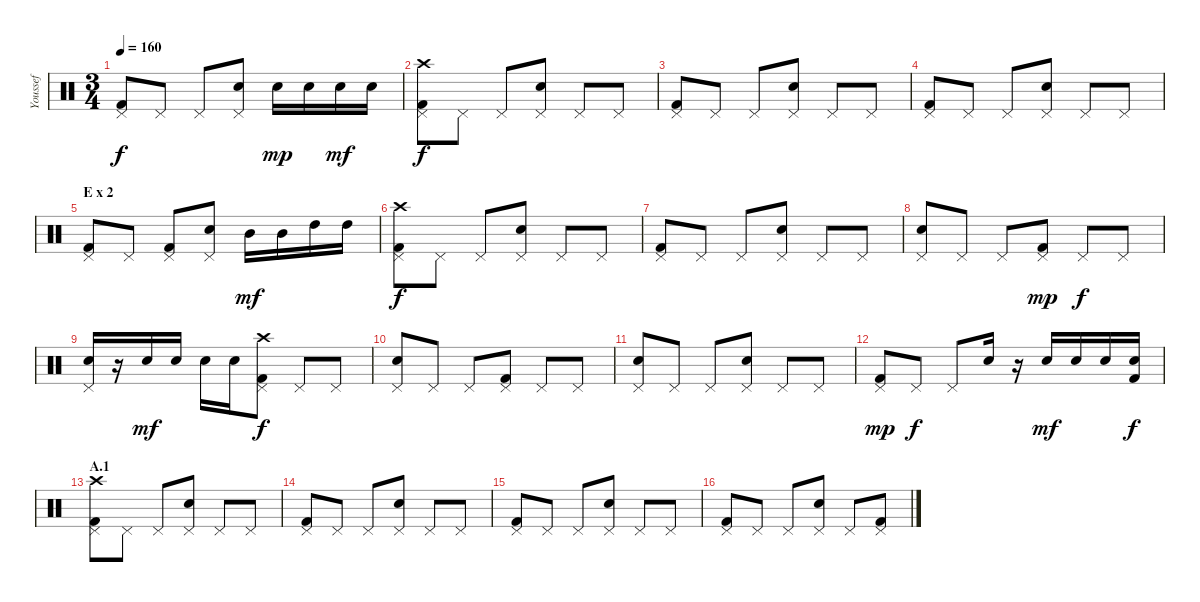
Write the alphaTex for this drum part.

\track ("Youssef" "Youssef") {instrument percussion}
\staff {score}
\articulation defaults
\ts (3 4)
\tempo 160
\clef neutral
\ks c
("Kick (hit) 2" "Pedal Hi-Hat (hit)").8{dy f} "Pedal Hi-Hat (hit)".8 "Pedal Hi-Hat (hit)".8 ("Electric Snare (hit)" "Pedal Hi-Hat (hit)").8 "Electric Snare (hit)".16{dy mp} "Electric Snare (hit)".16 "Electric Snare (hit)".16{dy mf} "Electric Snare (hit)".16 |
("Kick (hit) 2" "Crash high (hit)" "Pedal Hi-Hat (hit)").8{dy f} "Pedal Hi-Hat (hit)".8 "Pedal Hi-Hat (hit)".8 ("Electric Snare (hit)" "Pedal Hi-Hat (hit)").8 "Pedal Hi-Hat (hit)".8 "Pedal Hi-Hat (hit)".8 |
("Kick (hit) 2" "Pedal Hi-Hat (hit)").8 "Pedal Hi-Hat (hit)".8 "Pedal Hi-Hat (hit)".8 ("Electric Snare (hit)" "Pedal Hi-Hat (hit)").8 "Pedal Hi-Hat (hit)".8 "Pedal Hi-Hat (hit)".8 |
("Kick (hit) 2" "Pedal Hi-Hat (hit)").8 "Pedal Hi-Hat (hit)".8 "Pedal Hi-Hat (hit)".8 ("Electric Snare (hit)" "Pedal Hi-Hat (hit)").8 "Pedal Hi-Hat (hit)".8 "Pedal Hi-Hat (hit)".8 |
\section ("" "E x 2")
("Kick (hit) 2" "Pedal Hi-Hat (hit)").8 "Pedal Hi-Hat (hit)".8 ("Kick (hit) 2" "Pedal Hi-Hat (hit)").8 ("Electric Snare (hit)" "Pedal Hi-Hat (hit)").8 "Mid Tom (hit)".16{dy mf} "Mid Tom (hit)".16 "High Tom (hit)".16 "High Tom (hit)".16 |
("Kick (hit) 2" "Crash high (hit)" "Pedal Hi-Hat (hit)").8{dy f} "Pedal Hi-Hat (hit)".8 "Pedal Hi-Hat (hit)".8 ("Electric Snare (hit)" "Pedal Hi-Hat (hit)").8 "Pedal Hi-Hat (hit)".8 "Pedal Hi-Hat (hit)".8 |
("Kick (hit) 2" "Pedal Hi-Hat (hit)").8 "Pedal Hi-Hat (hit)".8 "Pedal Hi-Hat (hit)".8 ("Electric Snare (hit)" "Pedal Hi-Hat (hit)").8 "Pedal Hi-Hat (hit)".8 "Pedal Hi-Hat (hit)".8 |
("Electric Snare (hit)" "Pedal Hi-Hat (hit)").8 "Pedal Hi-Hat (hit)".8 "Pedal Hi-Hat (hit)".8 ("Kick (hit) 2" "Pedal Hi-Hat (hit)").8{dy mp} "Pedal Hi-Hat (hit)".8{dy f} "Pedal Hi-Hat (hit)".8 |
("Electric Snare (hit)" "Pedal Hi-Hat (hit)").16 r.16 "Electric Snare (hit)".16{dy mf} "Electric Snare (hit)".16 "Electric Snare (hit)".16 "Electric Snare (hit)".16 ("Kick (hit) 2" "Crash high (hit)" "Pedal Hi-Hat (hit)").8{dy f} "Pedal Hi-Hat (hit)".8 "Pedal Hi-Hat (hit)".8 |
("Electric Snare (hit)" "Pedal Hi-Hat (hit)").8 "Pedal Hi-Hat (hit)".8 "Pedal Hi-Hat (hit)".8 ("Kick (hit) 2" "Pedal Hi-Hat (hit)").8 "Pedal Hi-Hat (hit)".8 "Pedal Hi-Hat (hit)".8 |
("Electric Snare (hit)" "Pedal Hi-Hat (hit)").8 "Pedal Hi-Hat (hit)".8 "Pedal Hi-Hat (hit)".8 ("Electric Snare (hit)" "Pedal Hi-Hat (hit)").8 "Pedal Hi-Hat (hit)".8 "Pedal Hi-Hat (hit)".8 |
("Kick (hit) 2" "Pedal Hi-Hat (hit)").8{dy mp} "Pedal Hi-Hat (hit)".8{dy f} "Pedal Hi-Hat (hit)".8 "Electric Snare (hit)".16 r.16 "Electric Snare (hit)".16{dy mf} "Electric Snare (hit)".16 "Electric Snare (hit)".16 ("Kick (hit) 2" "Electric Snare (hit)").16{dy f} |
\section ("" "A.1")
("Kick (hit) 2" "Crash high (hit)" "Pedal Hi-Hat (hit)").8 "Pedal Hi-Hat (hit)".8 "Pedal Hi-Hat (hit)".8 ("Electric Snare (hit)" "Pedal Hi-Hat (hit)").8 "Pedal Hi-Hat (hit)".8 "Pedal Hi-Hat (hit)".8 |
("Kick (hit) 2" "Pedal Hi-Hat (hit)").8 "Pedal Hi-Hat (hit)".8 "Pedal Hi-Hat (hit)".8 ("Electric Snare (hit)" "Pedal Hi-Hat (hit)").8 "Pedal Hi-Hat (hit)".8 "Pedal Hi-Hat (hit)".8 |
("Kick (hit) 2" "Pedal Hi-Hat (hit)").8 "Pedal Hi-Hat (hit)".8 "Pedal Hi-Hat (hit)".8 ("Electric Snare (hit)" "Pedal Hi-Hat (hit)").8 "Pedal Hi-Hat (hit)".8 "Pedal Hi-Hat (hit)".8 |
("Kick (hit) 2" "Pedal Hi-Hat (hit)").8 "Pedal Hi-Hat (hit)".8 "Pedal Hi-Hat (hit)".8 ("Electric Snare (hit)" "Pedal Hi-Hat (hit)").8 "Pedal Hi-Hat (hit)".8 ("Kick (hit) 2" "Pedal Hi-Hat (hit)").8
